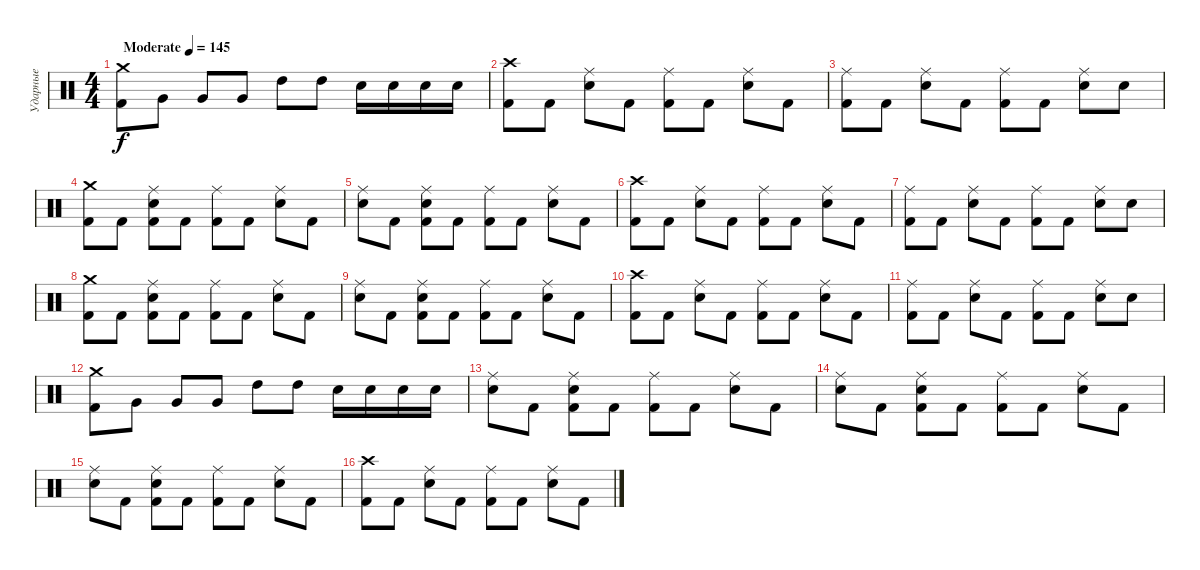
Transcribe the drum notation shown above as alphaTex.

\track ("Ударные" "Ударные") {instrument percussion}
\staff {score}
\articulation defaults
\ts (4 4)
\tempo (145 "Moderate")
\clef neutral
\ks c
("Crash medium (hit)" "Kick (hit) 2").8{dy f} "Very Low Tom (hit)".8 "Very Low Tom (hit)".8 "Very Low Tom (hit)".8 "High Tom (hit)".8 "High Tom (hit)".8 "Electric Snare (hit)".16 "Electric Snare (hit)".16 "Electric Snare (hit)".16 "Electric Snare (hit)".16 |
("Crash high (hit)" "Kick (hit) 2").8 "Kick (hit) 2".8 ("Ride (middle)" "Electric Snare (hit)").8 "Kick (hit) 2".8 ("Ride (middle)" "Kick (hit) 2").8 "Kick (hit) 2".8 ("Ride (middle)" "Electric Snare (hit)").8 "Kick (hit) 2".8 |
("Kick (hit) 2" "Ride (middle)").8 "Kick (hit) 2".8 ("Ride (middle)" "Electric Snare (hit)").8 "Kick (hit) 2".8 ("Kick (hit) 2" "Ride (middle)").8 "Kick (hit) 2".8 ("Electric Snare (hit)" "Ride (middle)").8 "Electric Snare (hit)".8 |
("Crash medium (hit)" "Kick (hit) 2").8 "Kick (hit) 2".8 ("Ride (middle)" "Kick (hit) 2" "Electric Snare (hit)").8 "Kick (hit) 2".8 ("Kick (hit) 2" "Ride (middle)").8 "Kick (hit) 2".8 ("Ride (middle)" "Electric Snare (hit)").8 "Kick (hit) 2".8 |
("Ride (middle)" "Electric Snare (hit)").8 "Kick (hit) 2".8 ("Ride (middle)" "Electric Snare (hit)" "Kick (hit) 2").8 "Kick (hit) 2".8 ("Ride (middle)" "Kick (hit) 2").8 "Kick (hit) 2".8 ("Ride (middle)" "Electric Snare (hit)").8 "Kick (hit) 2".8 |
("Crash high (hit)" "Kick (hit) 2").8 "Kick (hit) 2".8 ("Ride (middle)" "Electric Snare (hit)").8 "Kick (hit) 2".8 ("Ride (middle)" "Kick (hit) 2").8 "Kick (hit) 2".8 ("Ride (middle)" "Electric Snare (hit)").8 "Kick (hit) 2".8 |
("Kick (hit) 2" "Ride (middle)").8 "Kick (hit) 2".8 ("Ride (middle)" "Electric Snare (hit)").8 "Kick (hit) 2".8 ("Kick (hit) 2" "Ride (middle)").8 "Kick (hit) 2".8 ("Electric Snare (hit)" "Ride (middle)").8 "Electric Snare (hit)".8 |
("Crash medium (hit)" "Kick (hit) 2").8 "Kick (hit) 2".8 ("Ride (middle)" "Kick (hit) 2" "Electric Snare (hit)").8 "Kick (hit) 2".8 ("Kick (hit) 2" "Ride (middle)").8 "Kick (hit) 2".8 ("Ride (middle)" "Electric Snare (hit)").8 "Kick (hit) 2".8 |
("Ride (middle)" "Electric Snare (hit)").8 "Kick (hit) 2".8 ("Ride (middle)" "Electric Snare (hit)" "Kick (hit) 2").8 "Kick (hit) 2".8 ("Ride (middle)" "Kick (hit) 2").8 "Kick (hit) 2".8 ("Ride (middle)" "Electric Snare (hit)").8 "Kick (hit) 2".8 |
("Crash high (hit)" "Kick (hit) 2").8 "Kick (hit) 2".8 ("Ride (middle)" "Electric Snare (hit)").8 "Kick (hit) 2".8 ("Ride (middle)" "Kick (hit) 2").8 "Kick (hit) 2".8 ("Ride (middle)" "Electric Snare (hit)").8 "Kick (hit) 2".8 |
("Kick (hit) 2" "Ride (middle)").8 "Kick (hit) 2".8 ("Ride (middle)" "Electric Snare (hit)").8 "Kick (hit) 2".8 ("Kick (hit) 2" "Ride (middle)").8 "Kick (hit) 2".8 ("Electric Snare (hit)" "Ride (middle)").8 "Electric Snare (hit)".8 |
("Crash medium (hit)" "Kick (hit) 2").8 "Very Low Tom (hit)".8 "Very Low Tom (hit)".8 "Very Low Tom (hit)".8 "High Tom (hit)".8 "High Tom (hit)".8 "Electric Snare (hit)".16 "Electric Snare (hit)".16 "Electric Snare (hit)".16 "Electric Snare (hit)".16 |
("Ride (middle)" "Electric Snare (hit)").8 "Kick (hit) 2".8 ("Ride (middle)" "Electric Snare (hit)" "Kick (hit) 2").8 "Kick (hit) 2".8 ("Ride (middle)" "Kick (hit) 2").8 "Kick (hit) 2".8 ("Ride (middle)" "Electric Snare (hit)").8 "Kick (hit) 2".8 |
("Ride (middle)" "Electric Snare (hit)").8 "Kick (hit) 2".8 ("Ride (middle)" "Electric Snare (hit)" "Kick (hit) 2").8 "Kick (hit) 2".8 ("Ride (middle)" "Kick (hit) 2").8 "Kick (hit) 2".8 ("Ride (middle)" "Electric Snare (hit)").8 "Kick (hit) 2".8 |
("Ride (middle)" "Electric Snare (hit)").8 "Kick (hit) 2".8 ("Ride (middle)" "Electric Snare (hit)" "Kick (hit) 2").8 "Kick (hit) 2".8 ("Ride (middle)" "Kick (hit) 2").8 "Kick (hit) 2".8 ("Ride (middle)" "Electric Snare (hit)").8 "Kick (hit) 2".8 |
("Crash high (hit)" "Kick (hit) 2").8 "Kick (hit) 2".8 ("Ride (middle)" "Electric Snare (hit)").8 "Kick (hit) 2".8 ("Ride (middle)" "Kick (hit) 2").8 "Kick (hit) 2".8 ("Ride (middle)" "Electric Snare (hit)").8 "Kick (hit) 2".8
